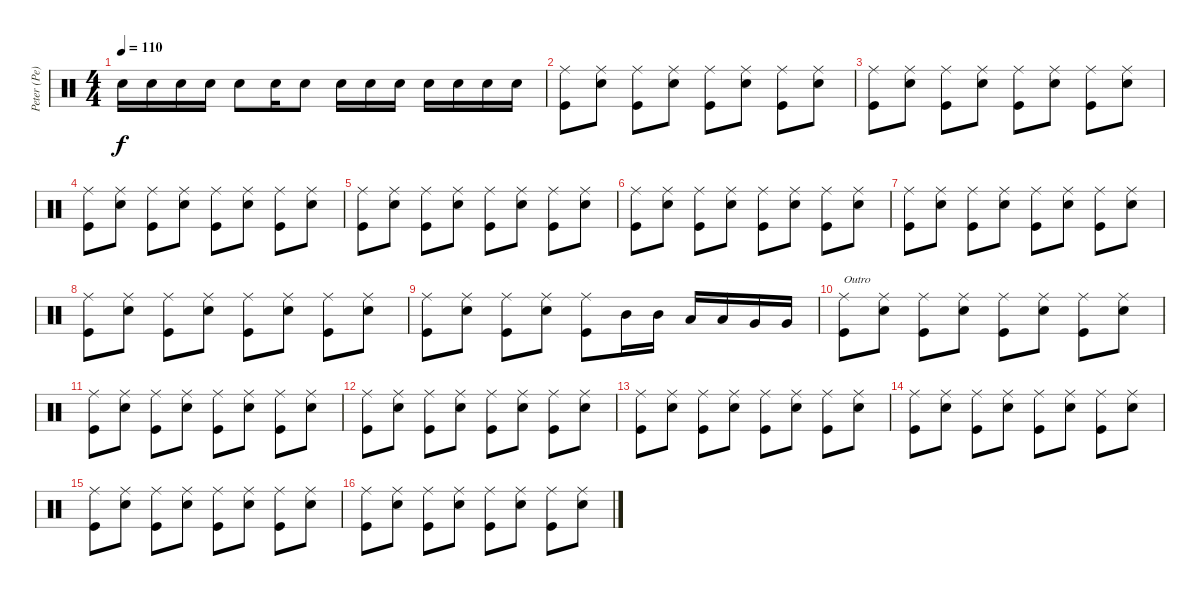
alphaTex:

\track ("Peter (Pe) Schorowsky" "Peter (Pe)") {instrument percussion}
\staff {score}
\articulation defaults
\ts (4 4)
\tempo 110
\clef neutral
\ks c "Snare (hit) 2".16{dy f} "Snare (hit) 2".16 "Snare (hit) 2".16 "Snare (hit) 2".16 "Snare (hit) 2".8 "Snare (hit) 2".16 "Snare (hit) 2".8 "Snare (hit) 2".16 "Snare (hit) 2".16 "Snare (hit) 2".16 "Snare (hit) 2".16 "Snare (hit) 2".16 "Snare (hit) 2".16 "Snare (hit) 2".16
|
("Ride (middle)" "Kick (hit)").8 ("Ride (middle)" "Snare (hit) 2").8 ("Ride (middle)" "Kick (hit)").8 ("Ride (middle)" "Snare (hit) 2").8 ("Ride (middle)" "Kick (hit)").8 ("Ride (middle)" "Snare (hit) 2").8 ("Ride (middle)" "Kick (hit)").8 ("Ride (middle)" "Snare (hit) 2").8 |
("Ride (middle)" "Kick (hit)").8 ("Ride (middle)" "Snare (hit) 2").8 ("Ride (middle)" "Kick (hit)").8 ("Ride (middle)" "Snare (hit) 2").8 ("Ride (middle)" "Kick (hit)").8 ("Ride (middle)" "Snare (hit) 2").8 ("Ride (middle)" "Kick (hit)").8 ("Ride (middle)" "Snare (hit) 2").8 |
("Ride (middle)" "Kick (hit)").8 ("Ride (middle)" "Snare (hit) 2").8 ("Ride (middle)" "Kick (hit)").8 ("Ride (middle)" "Snare (hit) 2").8 ("Ride (middle)" "Kick (hit)").8 ("Ride (middle)" "Snare (hit) 2").8 ("Ride (middle)" "Kick (hit)").8 ("Ride (middle)" "Snare (hit) 2").8 |
("Ride (middle)" "Kick (hit)").8 ("Ride (middle)" "Snare (hit) 2").8 ("Ride (middle)" "Kick (hit)").8 ("Ride (middle)" "Snare (hit) 2").8 ("Ride (middle)" "Kick (hit)").8 ("Ride (middle)" "Snare (hit) 2").8 ("Ride (middle)" "Kick (hit)").8 ("Ride (middle)" "Snare (hit) 2").8 |
("Ride (middle)" "Kick (hit)").8 ("Ride (middle)" "Snare (hit) 2").8 ("Ride (middle)" "Kick (hit)").8 ("Ride (middle)" "Snare (hit) 2").8 ("Ride (middle)" "Kick (hit)").8 ("Ride (middle)" "Snare (hit) 2").8 ("Ride (middle)" "Kick (hit)").8 ("Ride (middle)" "Snare (hit) 2").8 |
("Ride (middle)" "Kick (hit)").8 ("Ride (middle)" "Snare (hit) 2").8 ("Ride (middle)" "Kick (hit)").8 ("Ride (middle)" "Snare (hit) 2").8 ("Ride (middle)" "Kick (hit)").8 ("Ride (middle)" "Snare (hit) 2").8 ("Ride (middle)" "Kick (hit)").8 ("Ride (middle)" "Snare (hit) 2").8 |
("Ride (middle)" "Kick (hit)").8 ("Ride (middle)" "Snare (hit) 2").8 ("Ride (middle)" "Kick (hit)").8 ("Ride (middle)" "Snare (hit) 2").8 ("Ride (middle)" "Kick (hit)").8 ("Ride (middle)" "Snare (hit) 2").8 ("Ride (middle)" "Kick (hit)").8 ("Ride (middle)" "Snare (hit) 2").8 |
("Ride (middle)" "Kick (hit)").8 ("Ride (middle)" "Snare (hit) 2").8 ("Ride (middle)" "Kick (hit)").8 ("Ride (middle)" "Snare (hit) 2").8 ("Ride (middle)" "Kick (hit)").8 "Mid Tom (hit)".16 "Mid Tom (hit)".16 "Low Tom (hit)".16 "Low Tom (hit)".16 "Very Low Tom (hit)".16 "Very Low Tom (hit)".16 |
("Ride (middle)" "Kick (hit)").8{txt "Outro"} ("Ride (middle)" "Snare (hit) 2").8 ("Ride (middle)" "Kick (hit)").8 ("Ride (middle)" "Snare (hit) 2").8 ("Ride (middle)" "Kick (hit)").8 ("Ride (middle)" "Snare (hit) 2").8 ("Ride (middle)" "Kick (hit)").8 ("Ride (middle)" "Snare (hit) 2").8 |
("Ride (middle)" "Kick (hit)").8 ("Ride (middle)" "Snare (hit) 2").8 ("Ride (middle)" "Kick (hit)").8 ("Ride (middle)" "Snare (hit) 2").8 ("Ride (middle)" "Kick (hit)").8 ("Ride (middle)" "Snare (hit) 2").8 ("Ride (middle)" "Kick (hit)").8 ("Ride (middle)" "Snare (hit) 2").8 |
("Ride (middle)" "Kick (hit)").8 ("Ride (middle)" "Snare (hit) 2").8 ("Ride (middle)" "Kick (hit)").8 ("Ride (middle)" "Snare (hit) 2").8 ("Ride (middle)" "Kick (hit)").8 ("Ride (middle)" "Snare (hit) 2").8 ("Ride (middle)" "Kick (hit)").8 ("Ride (middle)" "Snare (hit) 2").8 |
("Ride (middle)" "Kick (hit)").8 ("Ride (middle)" "Snare (hit) 2").8 ("Ride (middle)" "Kick (hit)").8 ("Ride (middle)" "Snare (hit) 2").8 ("Ride (middle)" "Kick (hit)").8 ("Ride (middle)" "Snare (hit) 2").8 ("Ride (middle)" "Kick (hit)").8 ("Ride (middle)" "Snare (hit) 2").8 |
("Ride (middle)" "Kick (hit)").8 ("Ride (middle)" "Snare (hit) 2").8 ("Ride (middle)" "Kick (hit)").8 ("Ride (middle)" "Snare (hit) 2").8 ("Ride (middle)" "Kick (hit)").8 ("Ride (middle)" "Snare (hit) 2").8 ("Ride (middle)" "Kick (hit)").8 ("Ride (middle)" "Snare (hit) 2").8 |
("Ride (middle)" "Kick (hit)").8 ("Ride (middle)" "Snare (hit) 2").8 ("Ride (middle)" "Kick (hit)").8 ("Ride (middle)" "Snare (hit) 2").8 ("Ride (middle)" "Kick (hit)").8 ("Ride (middle)" "Snare (hit) 2").8 ("Ride (middle)" "Kick (hit)").8 ("Ride (middle)" "Snare (hit) 2").8 |
("Ride (middle)" "Kick (hit)").8 ("Ride (middle)" "Snare (hit) 2").8 ("Ride (middle)" "Kick (hit)").8 ("Ride (middle)" "Snare (hit) 2").8 ("Ride (middle)" "Kick (hit)").8 ("Ride (middle)" "Snare (hit) 2").8 ("Ride (middle)" "Kick (hit)").8 ("Ride (middle)" "Snare (hit) 2").8
